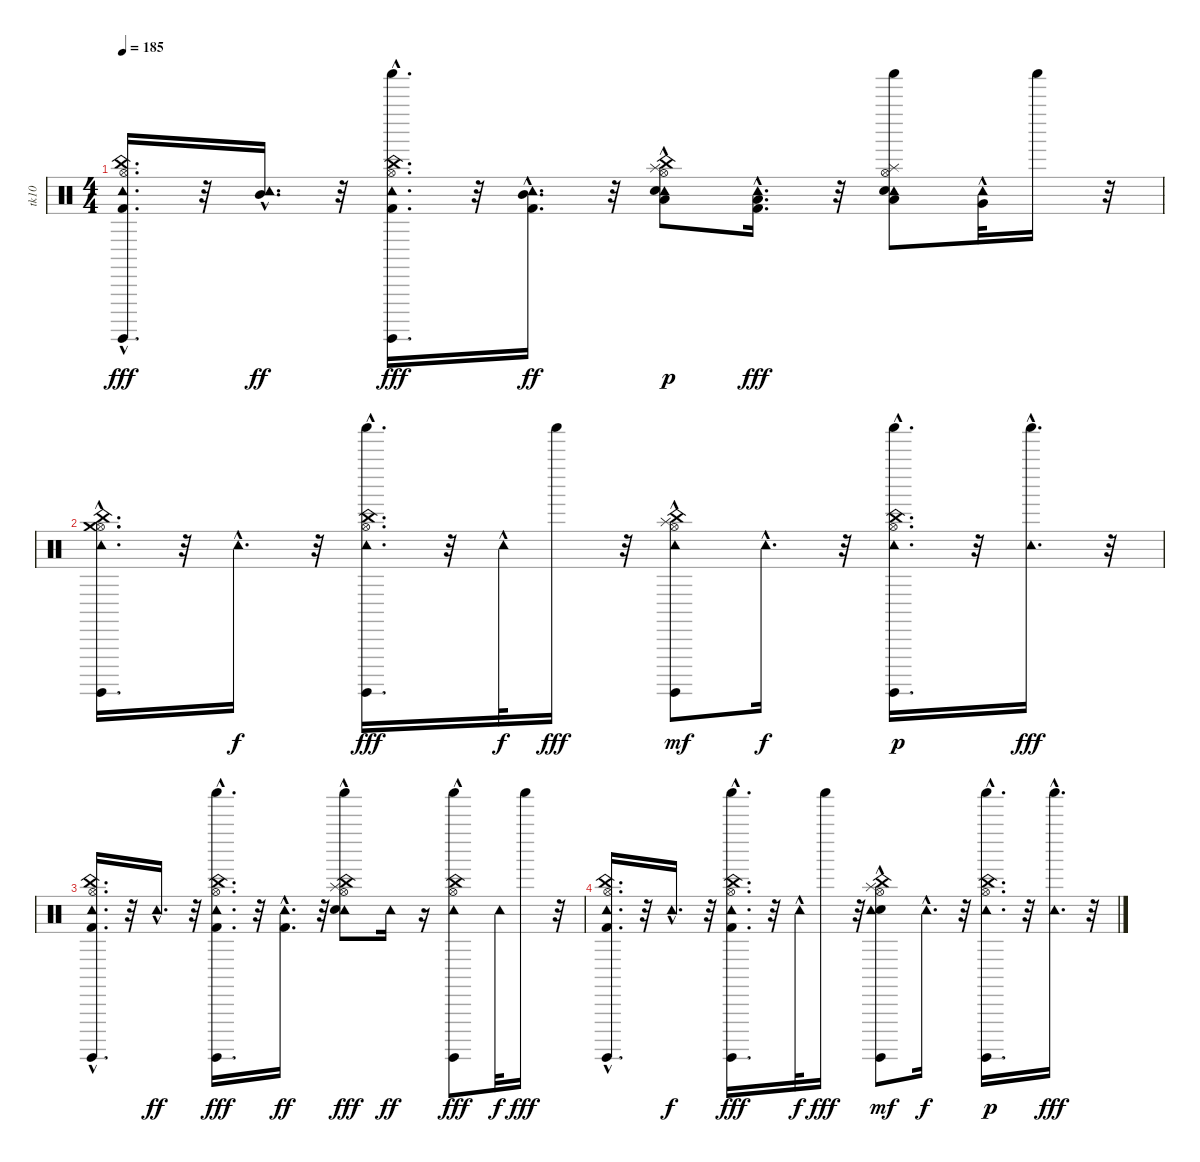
\track ("tk10" "tk10") {instrument percussion}
\staff {score}
\articulation defaults
\ts (4 4)
\tempo 185
\clef neutral
\ks c
("Kick (hit) 2"{hac} "Hi-Hat (open)" "China (hit)" "Surdo (hit)" "Tambourine (hit)"{hac}).16{d dy fff} r.32 ("Mid Tom (hit)" "Tambourine (hit)"{hac}).16{d dy ff} r.32 ("Tambourine (hit)"{hac} "Shaker (hit)" "Kick (hit) 2" "Hi-Hat (open)" "China (hit)" "Surdo (hit)").16{d dy fff} r.32 ("Tambourine (hit)"{hac} "Mid Tom (hit)"{hac} "Kick (hit) 2"{hac}).16{d dy ff} r.32 ("Tambourine (hit)"{hac} "Electric Snare (hit)" "Hi-Hat (open)" "Splash (hit)" "Low Tom (hit)" "China (hit)").8{dy p} ("Tambourine (hit)" "Kick (hit) 2"{hac} "Low Tom (hit)").16{d dy fff} r.32 ("Tambourine (hit)" "Shaker (hit)" "Electric Snare (hit)" "Hi-Hat (open)" "Splash (hit)" "Low Tom (hit)").8 ("Tambourine (hit)" "Very Low Tom (hit)"{hac}).32 "Shaker (hit)".16 r.32 |
("Hi-Hat (open)" "Crash medium (hit)" "Surdo (hit)" "China (hit)" "Tambourine (hit)"{hac}).16{d} r.32 "Tambourine (hit)"{hac}.16{d dy f} r.32 ("Tambourine (hit)"{hac} "Shaker (hit)" "Hi-Hat (open)" "China (hit)" "Surdo (hit)").16{d dy fff} r.32 "Tambourine (hit)"{hac}.32{dy f} "Shaker (hit)".16{dy fff} r.32 ("Hi-Hat (open)" "Splash (hit)" "China (hit)" "Tambourine (hit)"{hac} "Surdo (hit)").8{dy mf} "Tambourine (hit)"{hac}.16{d dy f} r.32 ("Shaker (hit)" "Surdo (hit)" "Tambourine (hit)"{hac} "Hi-Hat (open)" "China (hit)").16{d dy p} r.32 ("Tambourine (hit)"{hac} "Shaker (hit)").16{d dy fff} r.32 |
("Kick (hit) 2"{hac} "Hi-Hat (open)" "China (hit)" "Surdo (hit)" "Tambourine (hit)"{hac}).16{d} r.32 "Tambourine (hit)"{hac}.16{d dy ff} r.32 ("Tambourine (hit)"{hac} "Shaker (hit)" "Kick (hit) 2" "Hi-Hat (open)" "China (hit)" "Surdo (hit)").16{d dy fff} r.32 ("Tambourine (hit)"{hac} "Kick (hit) 2"{hac}).16{d dy ff} r.32 ("Tambourine (hit)"{hac} "Electric Snare (hit)" "Hi-Hat (open)" "Splash (hit)" "China (hit)" "Shaker (hit)"{hac}).8{dy fff} "Tambourine (hit)".16{dy ff} r.16 ("Tambourine (hit)" "Shaker (hit)" "Hi-Hat (open)" "China (hit)" "Surdo (hit)"{hac}).8{dy fff} "Tambourine (hit)".32{dy f} "Shaker (hit)".16{dy fff} r.32 |
("Kick (hit) 2"{hac} "Hi-Hat (open)" "Surdo (hit)" "China (hit)" "Tambourine (hit)"{hac}).16{d} r.32 "Tambourine (hit)"{hac}.16{d dy f} r.32 ("Tambourine (hit)"{hac} "Shaker (hit)" "Kick (hit) 2" "Hi-Hat (open)" "China (hit)" "Surdo (hit)").16{d dy fff} r.32 "Tambourine (hit)"{hac}.32{dy f} "Shaker (hit)".16{dy fff} r.32 ("Electric Snare (hit)" "Hi-Hat (open)" "Splash (hit)" "China (hit)" "Tambourine (hit)"{hac} "Surdo (hit)").8{dy mf} "Tambourine (hit)"{hac}.16{d dy f} r.32 ("Shaker (hit)" "Surdo (hit)" "Tambourine (hit)"{hac} "Hi-Hat (open)" "China (hit)").16{d dy p} r.32 ("Tambourine (hit)"{hac} "Shaker (hit)").16{d dy fff} r.32
